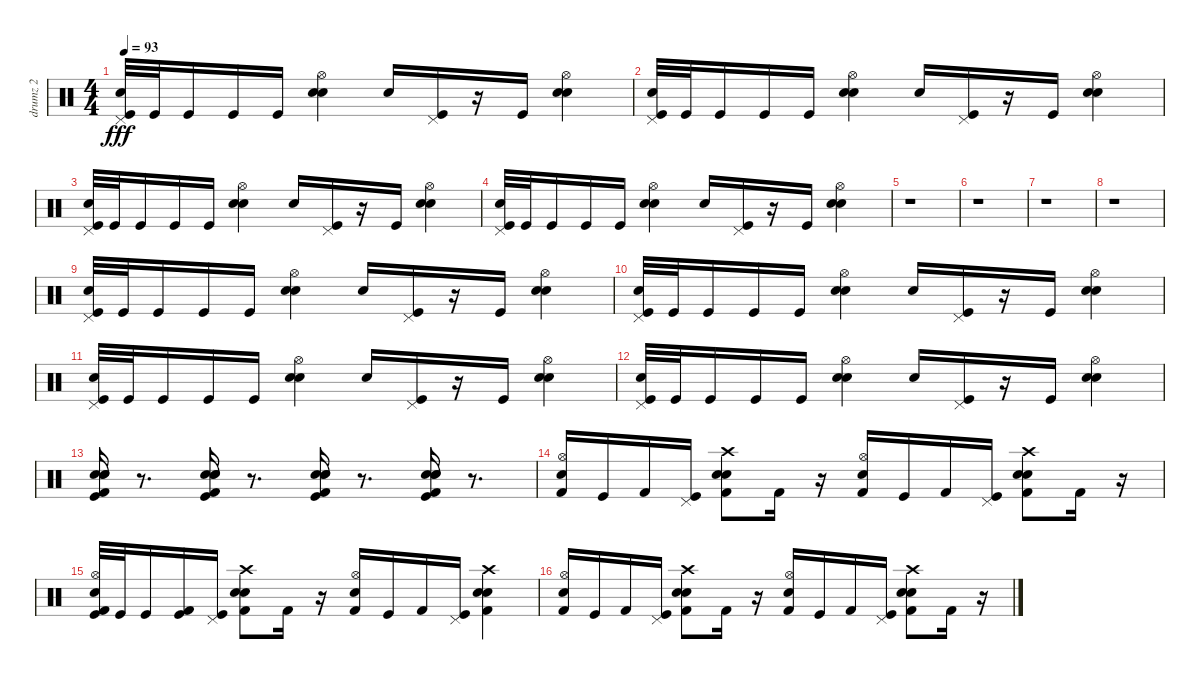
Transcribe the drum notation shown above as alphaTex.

\track ("drumz 2" "drumz 2") {instrument percussion}
\staff {score}
\articulation defaults
\ts (4 4)
\tempo 93
\clef neutral
\ks c
("Kick (hit)" "Pedal Hi-Hat (hit)" "Hand Clap (hit)").32{dy fff} "Kick (hit)".32 "Kick (hit)".16 "Kick (hit)".16 "Kick (hit)".16 ("Snare (hit) 2" "Hi-Hat (open)" "Hand Clap (hit)").4 "Hand Clap (hit)".16 ("Kick (hit)" "Pedal Hi-Hat (hit)").16 r.16 "Kick (hit)".16 ("Snare (hit) 2" "Hi-Hat (open)" "Hand Clap (hit)").4 |
("Kick (hit)" "Pedal Hi-Hat (hit)" "Hand Clap (hit)").32 "Kick (hit)".32 "Kick (hit)".16 "Kick (hit)".16 "Kick (hit)".16 ("Snare (hit) 2" "Hi-Hat (open)" "Hand Clap (hit)").4 "Hand Clap (hit)".16 ("Kick (hit)" "Pedal Hi-Hat (hit)").16 r.16 "Kick (hit)".16 ("Snare (hit) 2" "Hi-Hat (open)" "Hand Clap (hit)").4 |
("Kick (hit)" "Pedal Hi-Hat (hit)" "Hand Clap (hit)").32 "Kick (hit)".32 "Kick (hit)".16 "Kick (hit)".16 "Kick (hit)".16 ("Snare (hit) 2" "Hi-Hat (open)" "Hand Clap (hit)").4 "Hand Clap (hit)".16 ("Kick (hit)" "Pedal Hi-Hat (hit)").16 r.16 "Kick (hit)".16 ("Snare (hit) 2" "Hi-Hat (open)" "Hand Clap (hit)").4 |
("Kick (hit)" "Pedal Hi-Hat (hit)" "Hand Clap (hit)").32 "Kick (hit)".32 "Kick (hit)".16 "Kick (hit)".16 "Kick (hit)".16 ("Snare (hit) 2" "Hi-Hat (open)" "Hand Clap (hit)").4 "Hand Clap (hit)".16 ("Kick (hit)" "Pedal Hi-Hat (hit)").16 r.16 "Kick (hit)".16 ("Snare (hit) 2" "Hi-Hat (open)" "Hand Clap (hit)").4 |
r.1 |
r.1 |
r.1 |
r.1 |
("Kick (hit)" "Pedal Hi-Hat (hit)" "Hand Clap (hit)").32 "Kick (hit)".32 "Kick (hit)".16 "Kick (hit)".16 "Kick (hit)".16 ("Snare (hit) 2" "Hi-Hat (open)" "Hand Clap (hit)").4 "Hand Clap (hit)".16 ("Kick (hit)" "Pedal Hi-Hat (hit)").16 r.16 "Kick (hit)".16 ("Snare (hit) 2" "Hi-Hat (open)" "Hand Clap (hit)").4 |
("Kick (hit)" "Pedal Hi-Hat (hit)" "Hand Clap (hit)").32 "Kick (hit)".32 "Kick (hit)".16 "Kick (hit)".16 "Kick (hit)".16 ("Snare (hit) 2" "Hi-Hat (open)" "Hand Clap (hit)").4 "Hand Clap (hit)".16 ("Kick (hit)" "Pedal Hi-Hat (hit)").16 r.16 "Kick (hit)".16 ("Snare (hit) 2" "Hi-Hat (open)" "Hand Clap (hit)").4 |
("Kick (hit)" "Pedal Hi-Hat (hit)" "Hand Clap (hit)").32 "Kick (hit)".32 "Kick (hit)".16 "Kick (hit)".16 "Kick (hit)".16 ("Snare (hit) 2" "Hi-Hat (open)" "Hand Clap (hit)").4 "Hand Clap (hit)".16 ("Kick (hit)" "Pedal Hi-Hat (hit)").16 r.16 "Kick (hit)".16 ("Snare (hit) 2" "Hi-Hat (open)" "Hand Clap (hit)").4 |
("Kick (hit)" "Pedal Hi-Hat (hit)" "Hand Clap (hit)").32 "Kick (hit)".32 "Kick (hit)".16 "Kick (hit)".16 "Kick (hit)".16 ("Snare (hit) 2" "Hi-Hat (open)" "Hand Clap (hit)").4 "Hand Clap (hit)".16 ("Kick (hit)" "Pedal Hi-Hat (hit)").16 r.16 "Kick (hit)".16 ("Snare (hit) 2" "Hi-Hat (open)" "Hand Clap (hit)").4 |
("Kick (hit)" "Snare (hit) 2" "Kick (hit) 2" "Electric Snare (hit)" "Hand Clap (hit)").16 r.8{d} ("Kick (hit)" "Snare (hit) 2" "Kick (hit) 2" "Electric Snare (hit)" "Hand Clap (hit)").16 r.8{d} ("Kick (hit)" "Snare (hit) 2" "Kick (hit) 2" "Electric Snare (hit)" "Hand Clap (hit)").16 r.8{d} ("Kick (hit)" "Snare (hit) 2" "Kick (hit) 2" "Electric Snare (hit)" "Hand Clap (hit)").16 r.8{d} |
("Hi-Hat (open)" "Hand Clap (hit)" "Kick (hit) 2").16 "Kick (hit)".16 "Kick (hit) 2".16 ("Kick (hit)" "Pedal Hi-Hat (hit)").16 ("Snare (hit) 2" "Crash high (hit)" "Hand Clap (hit)" "Kick (hit) 2").8 "Kick (hit) 2".16 r.16 ("Hi-Hat (open)" "Hand Clap (hit)" "Kick (hit) 2").16 "Kick (hit)".16 "Kick (hit) 2".16 ("Kick (hit)" "Pedal Hi-Hat (hit)").16 ("Snare (hit) 2" "Crash high (hit)" "Hand Clap (hit)" "Kick (hit) 2").8 "Kick (hit) 2".16 r.16 |
("Kick (hit)" "Hand Clap (hit)" "Hi-Hat (open)" "Kick (hit) 2").32 "Kick (hit)".32 "Kick (hit)".16 ("Kick (hit)" "Kick (hit) 2").16 ("Kick (hit)" "Pedal Hi-Hat (hit)").16 ("Snare (hit) 2" "Hand Clap (hit)" "Crash high (hit)" "Kick (hit) 2").8 "Kick (hit) 2".16 r.16 ("Hand Clap (hit)" "Hi-Hat (open)" "Kick (hit) 2").16 "Kick (hit)".16 "Kick (hit) 2".16 ("Kick (hit)" "Pedal Hi-Hat (hit)").16 ("Snare (hit) 2" "Hand Clap (hit)" "Crash high (hit)" "Kick (hit) 2").4 |
("Hi-Hat (open)" "Hand Clap (hit)" "Kick (hit) 2").16 "Kick (hit)".16 "Kick (hit) 2".16 ("Kick (hit)" "Pedal Hi-Hat (hit)").16 ("Snare (hit) 2" "Crash high (hit)" "Hand Clap (hit)" "Kick (hit) 2").8 "Kick (hit) 2".16 r.16 ("Hi-Hat (open)" "Hand Clap (hit)" "Kick (hit) 2").16 "Kick (hit)".16 "Kick (hit) 2".16 ("Kick (hit)" "Pedal Hi-Hat (hit)").16 ("Snare (hit) 2" "Crash high (hit)" "Hand Clap (hit)" "Kick (hit) 2").8 "Kick (hit) 2".16 r.16
